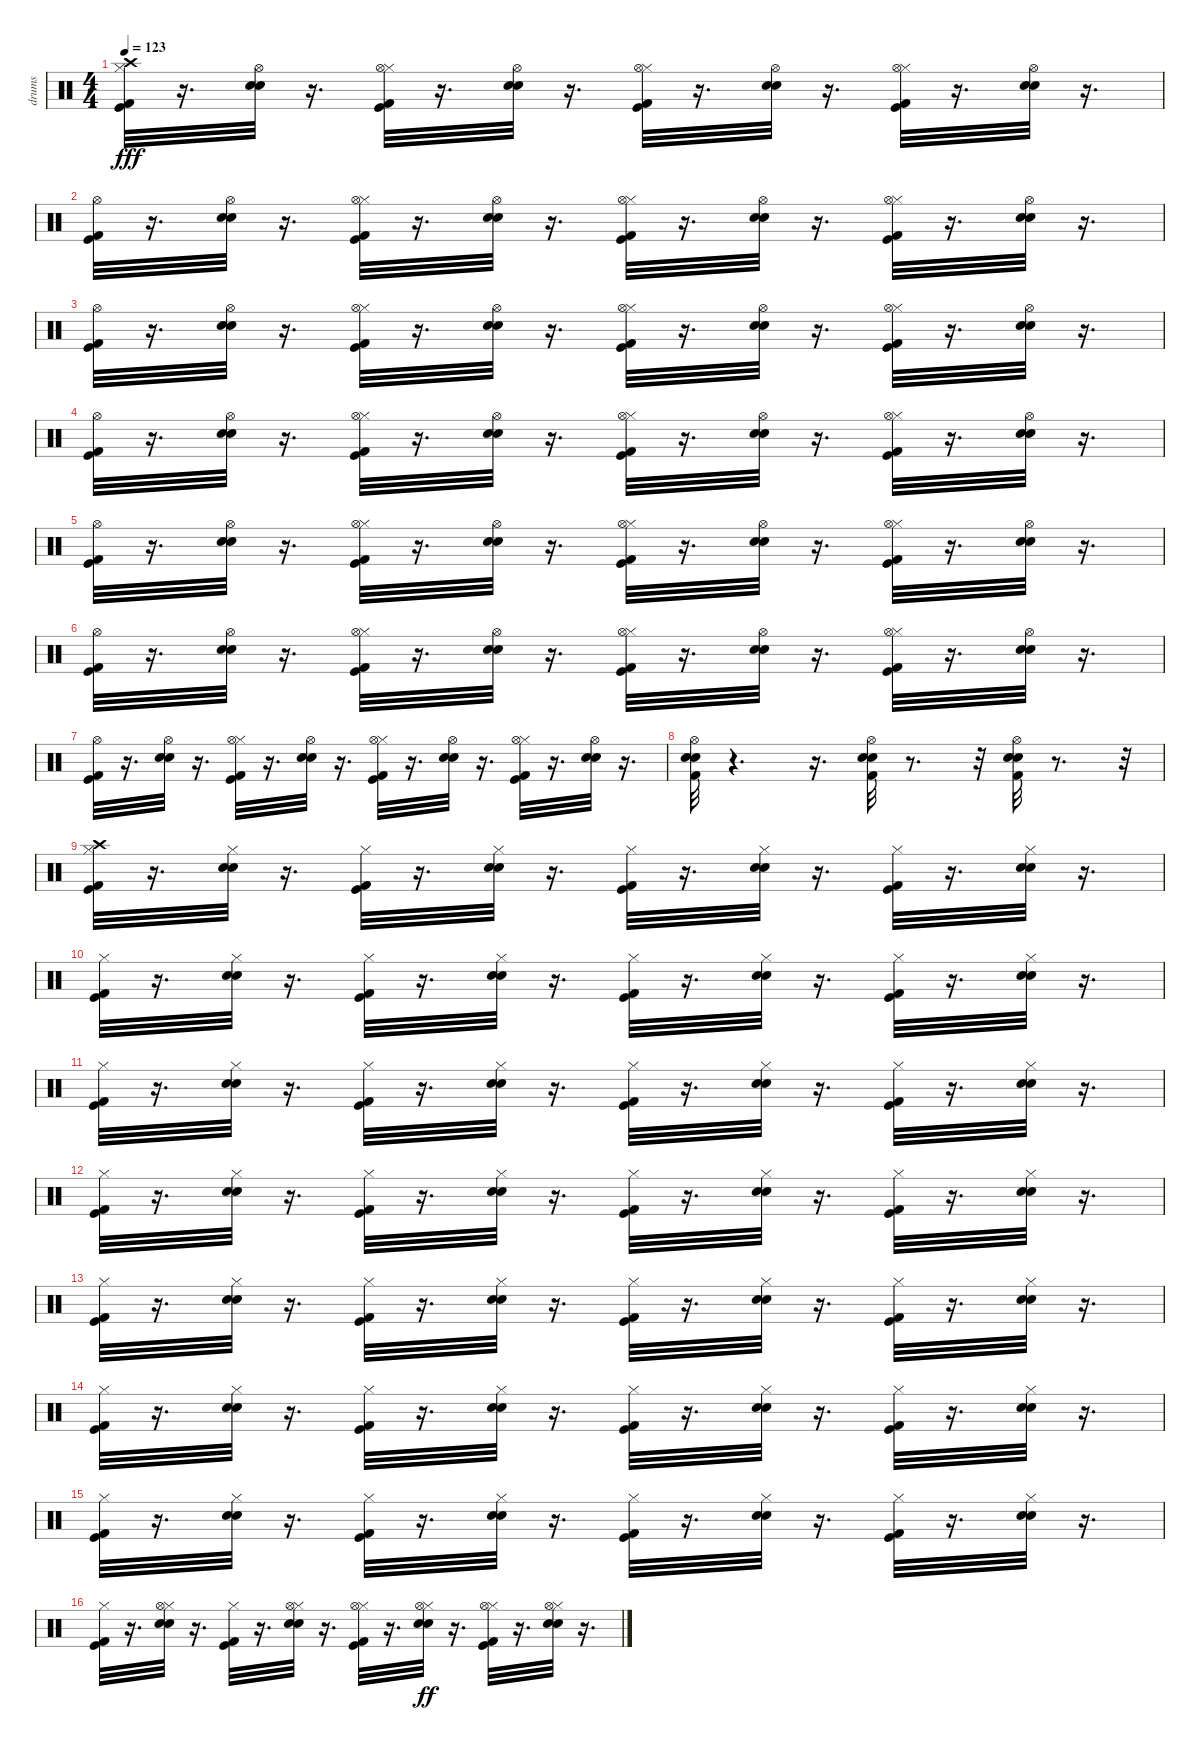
\track ("drums" "drums") {instrument percussion}
\staff {score}
\articulation defaults
\ts (4 4)
\tempo 123
\clef neutral
\ks c
("Kick (hit) 2" "Kick (hit)" "Hi-Hat (closed)" "Crash high (hit)").32{dy fff} r.16{d} ("Electric Snare (hit)" "Snare (hit) 2" "Hi-Hat (open)").32 r.16{d} ("Kick (hit) 2" "Kick (hit)" "Hi-Hat (closed)" "Hi-Hat (open)").32 r.16{d} ("Snare (hit) 2" "Electric Snare (hit)" "Hi-Hat (open)").32 r.16{d} ("Kick (hit) 2" "Kick (hit)" "Hi-Hat (closed)" "Hi-Hat (open)").32 r.16{d} ("Snare (hit) 2" "Electric Snare (hit)" "Hi-Hat (open)").32 r.16{d} ("Kick (hit) 2" "Kick (hit)" "Hi-Hat (closed)" "Hi-Hat (open)").32 r.16{d} ("Snare (hit) 2" "Electric Snare (hit)" "Hi-Hat (open)").32 r.16{d} |
("Hi-Hat (open)" "Kick (hit)" "Kick (hit) 2").32 r.16{d} ("Electric Snare (hit)" "Snare (hit) 2" "Hi-Hat (open)").32 r.16{d} ("Kick (hit) 2" "Kick (hit)" "Hi-Hat (closed)" "Hi-Hat (open)").32 r.16{d} ("Snare (hit) 2" "Electric Snare (hit)" "Hi-Hat (open)").32 r.16{d} ("Kick (hit) 2" "Kick (hit)" "Hi-Hat (closed)" "Hi-Hat (open)").32 r.16{d} ("Snare (hit) 2" "Electric Snare (hit)" "Hi-Hat (open)").32 r.16{d} ("Kick (hit) 2" "Kick (hit)" "Hi-Hat (closed)" "Hi-Hat (open)").32 r.16{d} ("Snare (hit) 2" "Electric Snare (hit)" "Hi-Hat (open)").32 r.16{d} |
("Kick (hit) 2" "Kick (hit)" "Hi-Hat (open)").32 r.16{d} ("Electric Snare (hit)" "Snare (hit) 2" "Hi-Hat (open)").32 r.16{d} ("Kick (hit) 2" "Kick (hit)" "Hi-Hat (closed)" "Hi-Hat (open)").32 r.16{d} ("Snare (hit) 2" "Electric Snare (hit)" "Hi-Hat (open)").32 r.16{d} ("Kick (hit) 2" "Kick (hit)" "Hi-Hat (closed)" "Hi-Hat (open)").32 r.16{d} ("Snare (hit) 2" "Electric Snare (hit)" "Hi-Hat (open)").32 r.16{d} ("Kick (hit) 2" "Kick (hit)" "Hi-Hat (closed)" "Hi-Hat (open)").32 r.16{d} ("Snare (hit) 2" "Electric Snare (hit)" "Hi-Hat (open)").32 r.16{d} |
("Kick (hit) 2" "Kick (hit)" "Hi-Hat (open)").32 r.16{d} ("Electric Snare (hit)" "Snare (hit) 2" "Hi-Hat (open)").32 r.16{d} ("Kick (hit) 2" "Kick (hit)" "Hi-Hat (closed)" "Hi-Hat (open)").32 r.16{d} ("Snare (hit) 2" "Electric Snare (hit)" "Hi-Hat (open)").32 r.16{d} ("Kick (hit) 2" "Kick (hit)" "Hi-Hat (closed)" "Hi-Hat (open)").32 r.16{d} ("Snare (hit) 2" "Electric Snare (hit)" "Hi-Hat (open)").32 r.16{d} ("Kick (hit) 2" "Kick (hit)" "Hi-Hat (closed)" "Hi-Hat (open)").32 r.16{d} ("Snare (hit) 2" "Electric Snare (hit)" "Hi-Hat (open)").32 r.16{d} |
("Kick (hit) 2" "Kick (hit)" "Hi-Hat (open)").32 r.16{d} ("Electric Snare (hit)" "Snare (hit) 2" "Hi-Hat (open)").32 r.16{d} ("Kick (hit) 2" "Kick (hit)" "Hi-Hat (closed)" "Hi-Hat (open)").32 r.16{d} ("Snare (hit) 2" "Electric Snare (hit)" "Hi-Hat (open)").32 r.16{d} ("Kick (hit) 2" "Kick (hit)" "Hi-Hat (closed)" "Hi-Hat (open)").32 r.16{d} ("Snare (hit) 2" "Electric Snare (hit)" "Hi-Hat (open)").32 r.16{d} ("Kick (hit) 2" "Kick (hit)" "Hi-Hat (closed)" "Hi-Hat (open)").32 r.16{d} ("Snare (hit) 2" "Electric Snare (hit)" "Hi-Hat (open)").32 r.16{d} |
("Kick (hit) 2" "Kick (hit)" "Hi-Hat (open)").32 r.16{d} ("Electric Snare (hit)" "Snare (hit) 2" "Hi-Hat (open)").32 r.16{d} ("Kick (hit) 2" "Kick (hit)" "Hi-Hat (closed)" "Hi-Hat (open)").32 r.16{d} ("Snare (hit) 2" "Electric Snare (hit)" "Hi-Hat (open)").32 r.16{d} ("Kick (hit) 2" "Kick (hit)" "Hi-Hat (closed)" "Hi-Hat (open)").32 r.16{d} ("Snare (hit) 2" "Electric Snare (hit)" "Hi-Hat (open)").32 r.16{d} ("Kick (hit) 2" "Kick (hit)" "Hi-Hat (closed)" "Hi-Hat (open)").32 r.16{d} ("Snare (hit) 2" "Electric Snare (hit)" "Hi-Hat (open)").32 r.16{d} |
("Kick (hit) 2" "Kick (hit)" "Hi-Hat (open)").32 r.16{d} ("Electric Snare (hit)" "Snare (hit) 2" "Hi-Hat (open)").32 r.16{d} ("Kick (hit) 2" "Kick (hit)" "Hi-Hat (closed)" "Hi-Hat (open)").32 r.16{d} ("Snare (hit) 2" "Electric Snare (hit)" "Hi-Hat (open)").32 r.16{d} ("Kick (hit) 2" "Kick (hit)" "Hi-Hat (closed)" "Hi-Hat (open)").32 r.16{d} ("Snare (hit) 2" "Electric Snare (hit)" "Hi-Hat (open)").32 r.16{d} ("Kick (hit) 2" "Kick (hit)" "Hi-Hat (closed)" "Hi-Hat (open)").32 r.16{d} ("Snare (hit) 2" "Electric Snare (hit)" "Hi-Hat (open)").32 r.16{d} |
("Hi-Hat (open)" "Electric Snare (hit)" "Snare (hit) 2" "Kick (hit) 2").32 r.4{d} r.16{d} ("Hi-Hat (open)" "Electric Snare (hit)" "Kick (hit) 2" "Snare (hit) 2").32 r.8{d} r.32 ("Hi-Hat (open)" "Electric Snare (hit)" "Snare (hit) 2" "Kick (hit) 2").32 r.8{d} r.32 |
("Crash high (hit)" "Hi-Hat (closed)" "Kick (hit)" "Kick (hit) 2").32 r.16{d} ("Electric Snare (hit)" "Snare (hit) 2" "Hi-Hat (closed)").32 r.16{d} ("Kick (hit) 2" "Kick (hit)" "Hi-Hat (closed)").32 r.16{d} ("Snare (hit) 2" "Electric Snare (hit)" "Hi-Hat (closed)").32 r.16{d} ("Kick (hit) 2" "Kick (hit)" "Hi-Hat (closed)").32 r.16{d} ("Snare (hit) 2" "Electric Snare (hit)" "Hi-Hat (closed)").32 r.16{d} ("Kick (hit) 2" "Kick (hit)" "Hi-Hat (closed)").32 r.16{d} ("Snare (hit) 2" "Electric Snare (hit)" "Hi-Hat (closed)").32 r.16{d} |
("Kick (hit) 2" "Kick (hit)" "Hi-Hat (closed)").32 r.16{d} ("Electric Snare (hit)" "Snare (hit) 2" "Hi-Hat (closed)").32 r.16{d} ("Kick (hit) 2" "Kick (hit)" "Hi-Hat (closed)").32 r.16{d} ("Snare (hit) 2" "Electric Snare (hit)" "Hi-Hat (closed)").32 r.16{d} ("Kick (hit) 2" "Kick (hit)" "Hi-Hat (closed)").32 r.16{d} ("Snare (hit) 2" "Electric Snare (hit)" "Hi-Hat (closed)").32 r.16{d} ("Kick (hit) 2" "Kick (hit)" "Hi-Hat (closed)").32 r.16{d} ("Snare (hit) 2" "Electric Snare (hit)" "Hi-Hat (closed)").32 r.16{d} |
("Hi-Hat (closed)" "Kick (hit)" "Kick (hit) 2").32 r.16{d} ("Electric Snare (hit)" "Snare (hit) 2" "Hi-Hat (closed)").32 r.16{d} ("Kick (hit) 2" "Kick (hit)" "Hi-Hat (closed)").32 r.16{d} ("Snare (hit) 2" "Electric Snare (hit)" "Hi-Hat (closed)").32 r.16{d} ("Kick (hit) 2" "Kick (hit)" "Hi-Hat (closed)").32 r.16{d} ("Snare (hit) 2" "Electric Snare (hit)" "Hi-Hat (closed)").32 r.16{d} ("Kick (hit) 2" "Kick (hit)" "Hi-Hat (closed)").32 r.16{d} ("Snare (hit) 2" "Electric Snare (hit)" "Hi-Hat (closed)").32 r.16{d} |
("Hi-Hat (closed)" "Kick (hit)" "Kick (hit) 2").32 r.16{d} ("Electric Snare (hit)" "Snare (hit) 2" "Hi-Hat (closed)").32 r.16{d} ("Kick (hit) 2" "Kick (hit)" "Hi-Hat (closed)").32 r.16{d} ("Snare (hit) 2" "Electric Snare (hit)" "Hi-Hat (closed)").32 r.16{d} ("Kick (hit) 2" "Kick (hit)" "Hi-Hat (closed)").32 r.16{d} ("Snare (hit) 2" "Electric Snare (hit)" "Hi-Hat (closed)").32 r.16{d} ("Kick (hit) 2" "Kick (hit)" "Hi-Hat (closed)").32 r.16{d} ("Snare (hit) 2" "Electric Snare (hit)" "Hi-Hat (closed)").32 r.16{d} |
("Hi-Hat (closed)" "Kick (hit)" "Kick (hit) 2").32 r.16{d} ("Electric Snare (hit)" "Snare (hit) 2" "Hi-Hat (closed)").32 r.16{d} ("Kick (hit) 2" "Kick (hit)" "Hi-Hat (closed)").32 r.16{d} ("Snare (hit) 2" "Electric Snare (hit)" "Hi-Hat (closed)").32 r.16{d} ("Kick (hit) 2" "Kick (hit)" "Hi-Hat (closed)").32 r.16{d} ("Snare (hit) 2" "Electric Snare (hit)" "Hi-Hat (closed)").32 r.16{d} ("Kick (hit) 2" "Kick (hit)" "Hi-Hat (closed)").32 r.16{d} ("Snare (hit) 2" "Electric Snare (hit)" "Hi-Hat (closed)").32 r.16{d} |
("Hi-Hat (closed)" "Kick (hit)" "Kick (hit) 2").32 r.16{d} ("Electric Snare (hit)" "Snare (hit) 2" "Hi-Hat (closed)").32 r.16{d} ("Kick (hit) 2" "Kick (hit)" "Hi-Hat (closed)").32 r.16{d} ("Snare (hit) 2" "Electric Snare (hit)" "Hi-Hat (closed)").32 r.16{d} ("Kick (hit) 2" "Kick (hit)" "Hi-Hat (closed)").32 r.16{d} ("Snare (hit) 2" "Electric Snare (hit)" "Hi-Hat (closed)").32 r.16{d} ("Kick (hit) 2" "Kick (hit)" "Hi-Hat (closed)").32 r.16{d} ("Snare (hit) 2" "Electric Snare (hit)" "Hi-Hat (closed)").32 r.16{d} |
("Hi-Hat (closed)" "Kick (hit)" "Kick (hit) 2").32 r.16{d} ("Electric Snare (hit)" "Snare (hit) 2" "Hi-Hat (closed)").32 r.16{d} ("Kick (hit) 2" "Kick (hit)" "Hi-Hat (closed)").32 r.16{d} ("Snare (hit) 2" "Electric Snare (hit)" "Hi-Hat (closed)").32 r.16{d} ("Kick (hit) 2" "Kick (hit)" "Hi-Hat (closed)").32 r.16{d} ("Snare (hit) 2" "Electric Snare (hit)" "Hi-Hat (closed)").32 r.16{d} ("Kick (hit) 2" "Kick (hit)" "Hi-Hat (closed)").32 r.16{d} ("Snare (hit) 2" "Electric Snare (hit)" "Hi-Hat (closed)").32 r.16{d} |
("Hi-Hat (closed)" "Kick (hit)" "Kick (hit) 2").32 r.16{d} ("Electric Snare (hit)" "Snare (hit) 2" "Hi-Hat (closed)" "Hi-Hat (open)").32 r.16{d} ("Kick (hit) 2" "Kick (hit)" "Hi-Hat (closed)").32 r.16{d} ("Snare (hit) 2" "Electric Snare (hit)" "Hi-Hat (closed)" "Hi-Hat (open)").32 r.16{d} ("Kick (hit) 2" "Kick (hit)" "Hi-Hat (closed)" "Hi-Hat (open)").32 r.16{d} ("Snare (hit) 2" "Electric Snare (hit)" "Hi-Hat (closed)" "Hi-Hat (open)").32{dy ff} r.16{d} ("Kick (hit) 2" "Kick (hit)" "Hi-Hat (closed)" "Hi-Hat (open)").32 r.16{d} ("Snare (hit) 2" "Electric Snare (hit)" "Hi-Hat (closed)" "Hi-Hat (open)").32 r.16{d}
